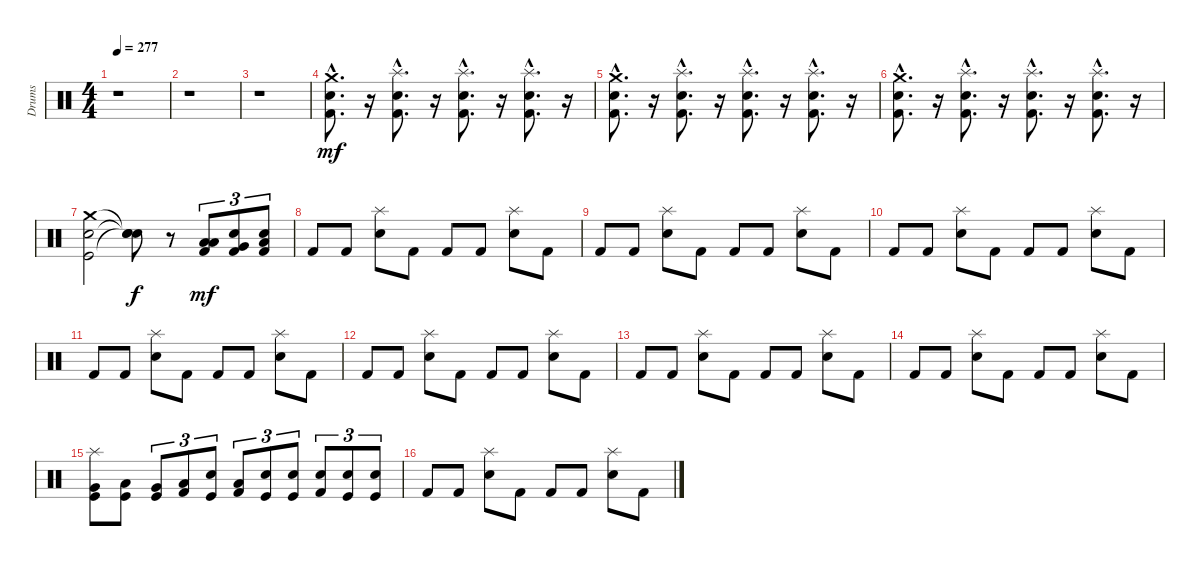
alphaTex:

\track ("Drums" "Drums") {instrument percussion}
\staff {score}
\articulation defaults
\ts (4 4)
\tempo 277
\clef neutral
\ks c
r.1{dy mf} |
r.1 |
r.1 |
("Crash medium (hit)"{hac} "Snare (hit) 2"{hac} "Kick (hit) 2"{hac}).8{d} r.16 ("Splash (hit)"{hac} "Snare (hit) 2"{hac} "Kick (hit) 2"{hac}).8{d} r.16 ("Splash (hit)"{hac} "Snare (hit) 2"{hac} "Kick (hit) 2"{hac}).8{d} r.16 ("Kick (hit) 2"{hac} "Splash (hit)"{hac} "Snare (hit) 2"{hac}).8{d} r.16 |
("Crash medium (hit)"{hac} "Snare (hit) 2"{hac} "Kick (hit) 2"{hac}).8{d} r.16 ("Splash (hit)"{hac} "Snare (hit) 2"{hac} "Kick (hit) 2"{hac}).8{d} r.16 ("Splash (hit)"{hac} "Snare (hit) 2"{hac} "Kick (hit) 2"{hac}).8{d} r.16 ("Kick (hit) 2"{hac} "Splash (hit)"{hac} "Snare (hit) 2"{hac}).8{d} r.16 |
("Crash medium (hit)"{hac} "Snare (hit) 2"{hac} "Kick (hit) 2"{hac}).8{d} r.16 ("Splash (hit)"{hac} "Snare (hit) 2"{hac} "Kick (hit) 2"{hac}).8{d} r.16 ("Splash (hit)"{hac} "Snare (hit) 2"{hac} "Kick (hit) 2"{hac}).8{d} r.16 ("Kick (hit) 2"{hac} "Splash (hit)"{hac} "Snare (hit) 2"{hac}).8{d} r.16 |
("Crash medium (hit)" "Snare (hit) 2" "Kick (hit)").2 ("Snare (hit)"{t} "Snare (hit)"{t} "Snare (hit)"{t}).8{dy f} r.8 ("Low Tom (hit)" "Low Floor Tom (hit)" "Kick (hit) 2").8{tu (3 2) dy mf} ("Electric Snare (hit)" "Kick (hit) 2" "Very Low Tom (hit)").8{tu (3 2)} ("Kick (hit) 2" "Snare (hit) 2" "Low Floor Tom (hit)").8{tu (3 2)} |
"Kick (hit) 2".8 "Kick (hit) 2".8 ("Electric Snare (hit)" "Splash (hit)").8 "Kick (hit) 2".8 "Kick (hit) 2".8 "Kick (hit) 2".8 ("Electric Snare (hit)" "Splash (hit)").8 "Kick (hit) 2".8 |
"Kick (hit) 2".8 "Kick (hit) 2".8 ("Electric Snare (hit)" "Splash (hit)").8 "Kick (hit) 2".8 "Kick (hit) 2".8 "Kick (hit) 2".8 ("Splash (hit)" "Electric Snare (hit)").8 "Kick (hit) 2".8 |
"Kick (hit) 2".8 "Kick (hit) 2".8 ("Splash (hit)" "Electric Snare (hit)").8 "Kick (hit) 2".8 "Kick (hit) 2".8 "Kick (hit) 2".8 ("Splash (hit)" "Electric Snare (hit)").8 "Kick (hit) 2".8 |
"Kick (hit) 2".8 "Kick (hit) 2".8 ("Electric Snare (hit)" "Splash (hit)").8 "Kick (hit) 2".8 "Kick (hit) 2".8 "Kick (hit) 2".8 ("Electric Snare (hit)" "Splash (hit)").8 "Kick (hit) 2".8 |
"Kick (hit) 2".8 "Kick (hit) 2".8 ("Splash (hit)" "Electric Snare (hit)").8 "Kick (hit) 2".8 "Kick (hit) 2".8 "Kick (hit) 2".8 ("Splash (hit)" "Electric Snare (hit)").8 "Kick (hit) 2".8 |
"Kick (hit) 2".8 "Kick (hit) 2".8 ("Splash (hit)" "Electric Snare (hit)").8 "Kick (hit) 2".8 "Kick (hit) 2".8 "Kick (hit) 2".8 ("Splash (hit)" "Electric Snare (hit)").8 "Kick (hit) 2".8 |
"Kick (hit) 2".8 "Kick (hit) 2".8 ("Electric Snare (hit)" "Splash (hit)").8 "Kick (hit) 2".8 "Kick (hit) 2".8 "Kick (hit) 2".8 ("Splash (hit)" "Electric Snare (hit)").8 "Kick (hit) 2".8 |
("Splash (hit)" "Very Low Tom (hit)" "Kick (hit)").8 ("Low Floor Tom (hit)" "Kick (hit)").8 ("Very Low Tom (hit)" "Kick (hit)").8{tu (3 2)} ("Kick (hit) 2" "Low Floor Tom (hit)").8{tu (3 2)} ("Kick (hit)" "Electric Snare (hit)").8{tu (3 2)} ("Kick (hit) 2" "Low Floor Tom (hit)").8{tu (3 2)} ("Kick (hit)" "Electric Snare (hit)").8{tu (3 2)} ("Kick (hit)" "Snare (hit) 2").8{tu (3 2)} ("Kick (hit) 2" "Electric Snare (hit)").8{tu (3 2)} ("Snare (hit) 2" "Kick (hit)").8{tu (3 2)} ("Kick (hit)" "Electric Snare (hit)").8{tu (3 2)} |
"Kick (hit) 2".8 "Kick (hit) 2".8 ("Electric Snare (hit)" "Splash (hit)").8 "Kick (hit) 2".8 "Kick (hit) 2".8 "Kick (hit) 2".8 ("Electric Snare (hit)" "Splash (hit)").8 "Kick (hit) 2".8
